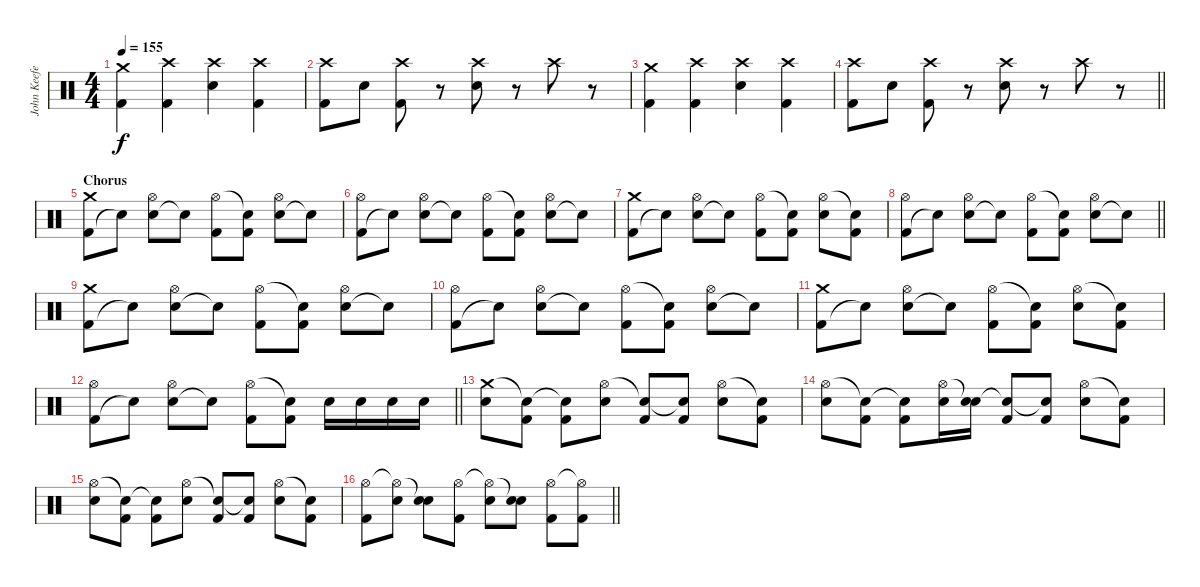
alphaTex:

\track ("John Keefe (Percussion)" "John Keefe") {instrument percussion}
\staff {score}
\articulation defaults
\ts (4 4)
\tempo 155
\clef neutral
\ks c
("Kick (hit) 2" "Crash medium (hit)").4{dy f} ("Kick (hit) 2" "Crash high (hit)").4 ("Electric Snare (hit)" "Crash high (hit)").4 ("Kick (hit) 2" "Crash high (hit)").4 |
("Kick (hit) 2" "Crash high (hit)").8 "Electric Snare (hit)".8 ("Kick (hit) 2" "Crash high (hit)").8 r.8 ("Electric Snare (hit)" "Crash high (hit)").8 r.8 "Crash high (hit)".8 r.8 |
("Kick (hit) 2" "Crash medium (hit)").4 ("Kick (hit) 2" "Crash high (hit)").4 ("Electric Snare (hit)" "Crash high (hit)").4 ("Kick (hit) 2" "Crash high (hit)").4 |
\barLineRight lightlight
("Kick (hit) 2" "Crash high (hit)").8 "Electric Snare (hit)".8 ("Kick (hit) 2" "Crash high (hit)").8 r.8 ("Electric Snare (hit)" "Crash high (hit)").8 r.8 "Crash high (hit)".8 r.8 |
\section ("" "Chorus")
("Kick (hit) 2" "Crash medium (hit)").8 "Snare (hit)"{t}.8 ("Electric Snare (hit)" "Hi-Hat (open)").8 "Snare (hit)"{t}.8 ("Kick (hit) 2" "Hi-Hat (open)").8 ("Kick (hit) 2" "Snare (hit)"{t}).8 ("Electric Snare (hit)" "Hi-Hat (open)").8 "Snare (hit)"{t}.8 |
("Kick (hit) 2" "Hi-Hat (open)").8 "Snare (hit)"{t}.8 ("Electric Snare (hit)" "Hi-Hat (open)").8 "Snare (hit)"{t}.8 ("Kick (hit) 2" "Hi-Hat (open)").8 ("Kick (hit) 2" "Snare (hit)"{t}).8 ("Electric Snare (hit)" "Hi-Hat (open)").8 "Snare (hit)"{t}.8 |
("Kick (hit) 2" "Crash medium (hit)").8 "Snare (hit)"{t}.8 ("Electric Snare (hit)" "Hi-Hat (open)").8 "Snare (hit)"{t}.8 ("Kick (hit) 2" "Hi-Hat (open)").8 ("Kick (hit) 2" "Snare (hit)"{t}).8 ("Electric Snare (hit)" "Hi-Hat (open)").8 ("Kick (hit) 2" "Snare (hit)"{t}).8 |
\barLineRight lightlight
("Kick (hit) 2" "Hi-Hat (open)").8 "Snare (hit)"{t}.8 ("Electric Snare (hit)" "Hi-Hat (open)").8 "Snare (hit)"{t}.8 ("Kick (hit) 2" "Hi-Hat (open)").8 ("Kick (hit) 2" "Snare (hit)"{t}).8 ("Electric Snare (hit)" "Hi-Hat (open)").8 "Snare (hit)"{t}.8 |
("Kick (hit) 2" "Crash medium (hit)").8 "Snare (hit)"{t}.8 ("Electric Snare (hit)" "Hi-Hat (open)").8 "Snare (hit)"{t}.8 ("Kick (hit) 2" "Hi-Hat (open)").8 ("Kick (hit) 2" "Snare (hit)"{t}).8 ("Electric Snare (hit)" "Hi-Hat (open)").8 "Snare (hit)"{t}.8 |
("Kick (hit) 2" "Hi-Hat (open)").8 "Snare (hit)"{t}.8 ("Electric Snare (hit)" "Hi-Hat (open)").8 "Snare (hit)"{t}.8 ("Kick (hit) 2" "Hi-Hat (open)").8 ("Kick (hit) 2" "Snare (hit)"{t}).8 ("Electric Snare (hit)" "Hi-Hat (open)").8 "Snare (hit)"{t}.8 |
("Kick (hit) 2" "Crash medium (hit)").8 "Snare (hit)"{t}.8 ("Electric Snare (hit)" "Hi-Hat (open)").8 "Snare (hit)"{t}.8 ("Kick (hit) 2" "Hi-Hat (open)").8 ("Kick (hit) 2" "Snare (hit)"{t}).8 ("Electric Snare (hit)" "Hi-Hat (open)").8 ("Kick (hit) 2" "Snare (hit)"{t}).8 |
\barLineRight lightlight
("Kick (hit) 2" "Hi-Hat (open)").8 "Snare (hit)"{t}.8 ("Electric Snare (hit)" "Hi-Hat (open)").8 "Snare (hit)"{t}.8 ("Kick (hit) 2" "Hi-Hat (open)").8 ("Kick (hit) 2" "Snare (hit)"{t}).8 "Electric Snare (hit)".16 "Electric Snare (hit)".16 "Electric Snare (hit)".16 "Electric Snare (hit)".16 |
("Electric Snare (hit)" "Crash medium (hit)").8 ("Kick (hit) 2" "Snare (hit)"{t}).8 ("Kick (hit) 2" "Snare (hit)"{t}).8 ("Electric Snare (hit)" "Hi-Hat (open)").8 ("Kick (hit) 2" "Snare (hit)"{t}).8 ("Kick (hit) 2" "Snare (hit)"{t}).8 ("Electric Snare (hit)" "Hi-Hat (open)").8 ("Kick (hit) 2" "Snare (hit)"{t}).8 |
("Electric Snare (hit)" "Hi-Hat (open)").8 ("Kick (hit) 2" "Snare (hit)"{t}).8 ("Kick (hit) 2" "Snare (hit)"{t}).8 ("Electric Snare (hit)" "Hi-Hat (open)").16 ("Electric Snare (hit)" "Snare (hit)"{t}).16 ("Kick (hit) 2" "Snare (hit)"{t}).8 ("Kick (hit) 2" "Snare (hit)"{t}).8 ("Electric Snare (hit)" "Hi-Hat (open)").8 ("Kick (hit) 2" "Snare (hit)"{t}).8 |
("Electric Snare (hit)" "Hi-Hat (open)").8 ("Kick (hit) 2" "Snare (hit)"{t}).8 ("Kick (hit) 2" "Snare (hit)"{t}).8 ("Electric Snare (hit)" "Hi-Hat (open)").8 ("Kick (hit) 2" "Snare (hit)"{t}).8 ("Kick (hit) 2" "Snare (hit)"{t}).8 ("Electric Snare (hit)" "Hi-Hat (open)").8 ("Kick (hit) 2" "Snare (hit)"{t}).8 |
\barLineRight lightlight
("Kick (hit) 2" "Hi-Hat (open)").8 ("Electric Snare (hit)" "Hi-Hat (open)"{t}).8 ("Electric Snare (hit)" "Snare (hit)"{t}).8 ("Kick (hit) 2" "Hi-Hat (open)").8 ("Electric Snare (hit)" "Hi-Hat (open)"{t}).8 ("Electric Snare (hit)" "Snare (hit)"{t}).8 ("Kick (hit) 2" "Hi-Hat (open)").8 ("Kick (hit) 2" "Hi-Hat (open)"{t}).8
